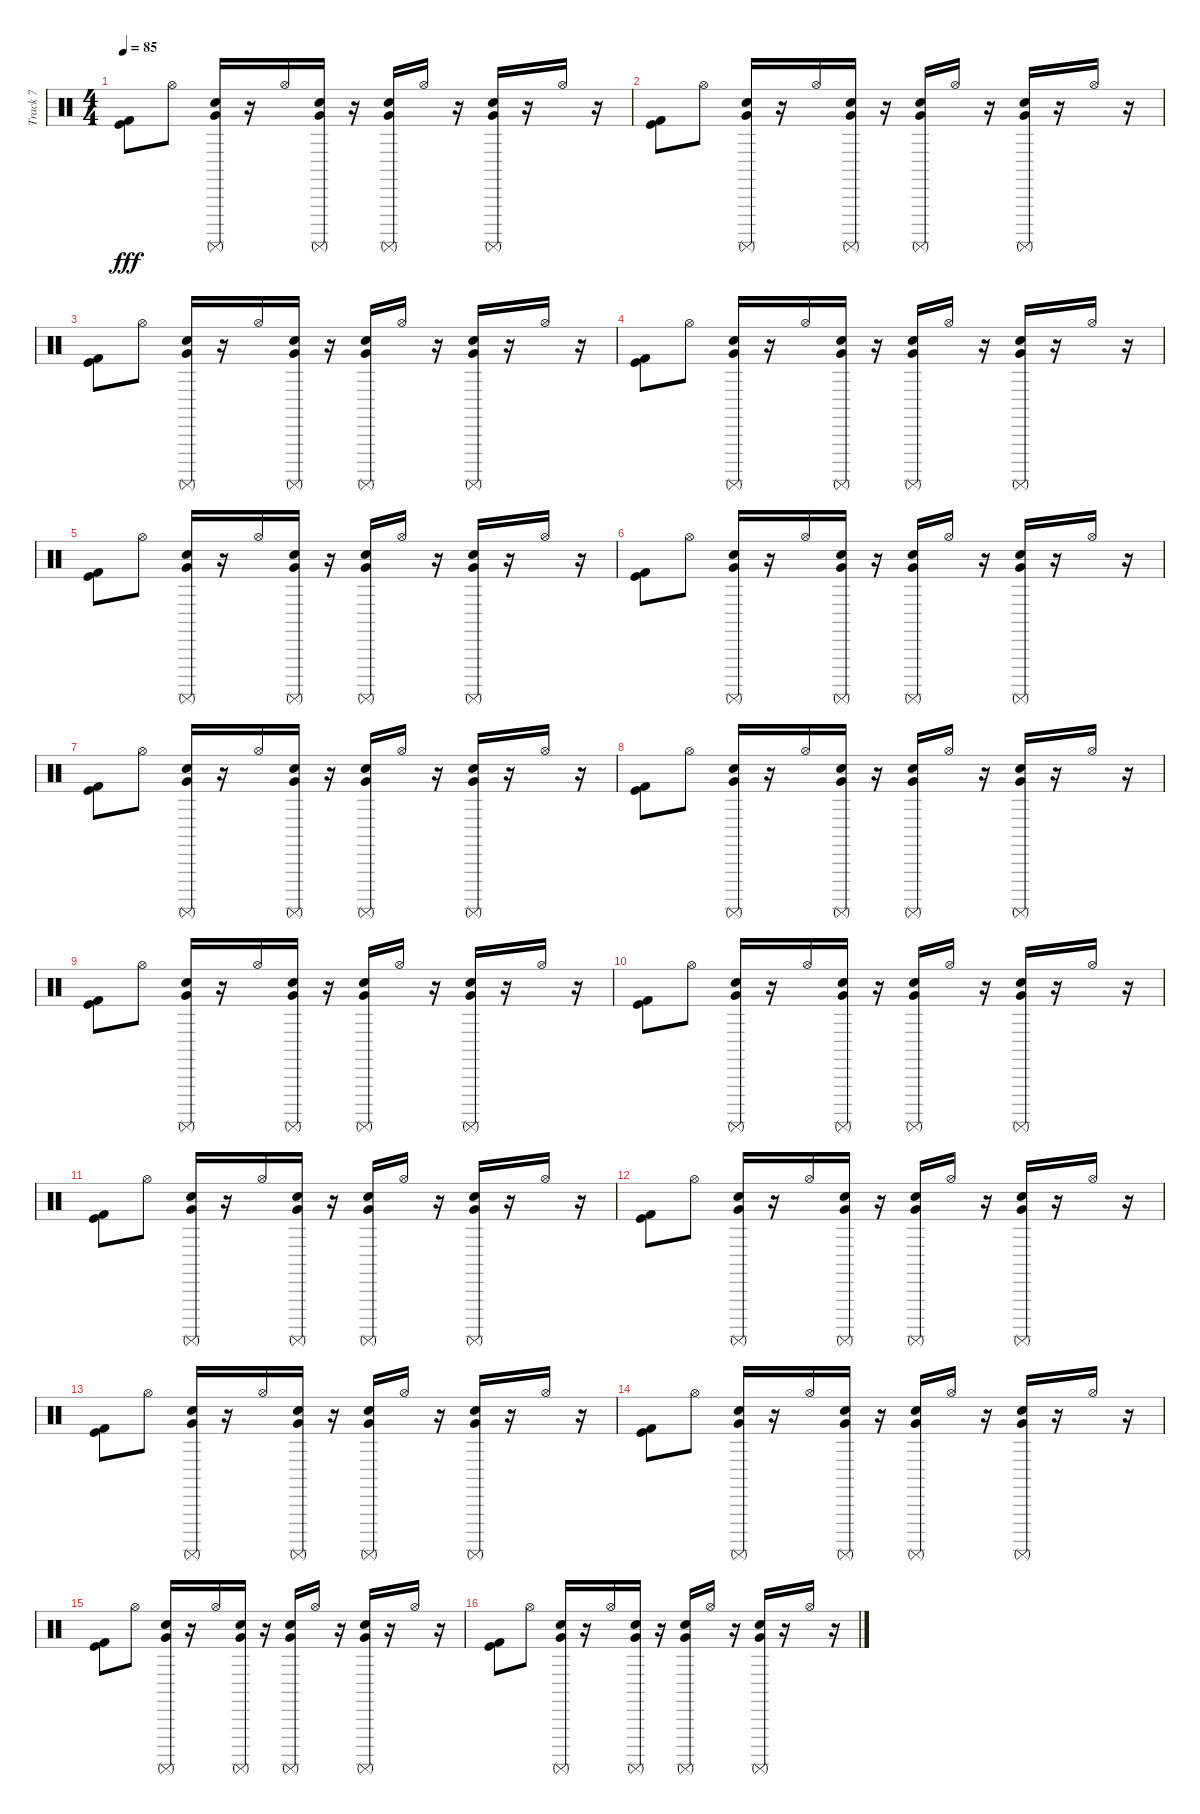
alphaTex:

\track ("Track 7" "Track 7") {instrument percussion}
\staff {score}
\articulation defaults
\ts (4 4)
\tempo 85
\clef neutral
\ks c
("Kick (hit)" "Kick (hit) 2").8{dy fff} "Hi-Hat (open)".8 ("Surdo (mute)" "Snare (hit) 2" "Very Low Tom (hit)").16 r.16 "Hi-Hat (open)".16 ("Surdo (mute)" "Snare (hit) 2" "Very Low Tom (hit)").16 r.16 ("Surdo (mute)" "Snare (hit) 2" "Very Low Tom (hit)").16 "Hi-Hat (open)".16 r.16 ("Surdo (mute)" "Snare (hit) 2" "Very Low Tom (hit)").16 r.16 "Hi-Hat (open)".16 r.16 |
("Kick (hit)" "Kick (hit) 2").8 "Hi-Hat (open)".8 ("Surdo (mute)" "Snare (hit) 2" "Very Low Tom (hit)").16 r.16 "Hi-Hat (open)".16 ("Surdo (mute)" "Snare (hit) 2" "Very Low Tom (hit)").16 r.16 ("Surdo (mute)" "Snare (hit) 2" "Very Low Tom (hit)").16 "Hi-Hat (open)".16 r.16 ("Surdo (mute)" "Snare (hit) 2" "Very Low Tom (hit)").16 r.16 "Hi-Hat (open)".16 r.16 |
("Kick (hit)" "Kick (hit) 2").8 "Hi-Hat (open)".8 ("Surdo (mute)" "Snare (hit) 2" "Very Low Tom (hit)").16 r.16 "Hi-Hat (open)".16 ("Surdo (mute)" "Snare (hit) 2" "Very Low Tom (hit)").16 r.16 ("Surdo (mute)" "Snare (hit) 2" "Very Low Tom (hit)").16 "Hi-Hat (open)".16 r.16 ("Surdo (mute)" "Snare (hit) 2" "Very Low Tom (hit)").16 r.16 "Hi-Hat (open)".16 r.16 |
("Kick (hit)" "Kick (hit) 2").8 "Hi-Hat (open)".8 ("Surdo (mute)" "Snare (hit) 2" "Very Low Tom (hit)").16 r.16 "Hi-Hat (open)".16 ("Surdo (mute)" "Snare (hit) 2" "Very Low Tom (hit)").16 r.16 ("Surdo (mute)" "Snare (hit) 2" "Very Low Tom (hit)").16 "Hi-Hat (open)".16 r.16 ("Surdo (mute)" "Snare (hit) 2" "Very Low Tom (hit)").16 r.16 "Hi-Hat (open)".16 r.16 |
("Kick (hit)" "Kick (hit) 2").8 "Hi-Hat (open)".8 ("Surdo (mute)" "Snare (hit) 2" "Very Low Tom (hit)").16 r.16 "Hi-Hat (open)".16 ("Surdo (mute)" "Snare (hit) 2" "Very Low Tom (hit)").16 r.16 ("Surdo (mute)" "Snare (hit) 2" "Very Low Tom (hit)").16 "Hi-Hat (open)".16 r.16 ("Surdo (mute)" "Snare (hit) 2" "Very Low Tom (hit)").16 r.16 "Hi-Hat (open)".16 r.16 |
("Kick (hit)" "Kick (hit) 2").8 "Hi-Hat (open)".8 ("Surdo (mute)" "Snare (hit) 2" "Very Low Tom (hit)").16 r.16 "Hi-Hat (open)".16 ("Surdo (mute)" "Snare (hit) 2" "Very Low Tom (hit)").16 r.16 ("Surdo (mute)" "Snare (hit) 2" "Very Low Tom (hit)").16 "Hi-Hat (open)".16 r.16 ("Surdo (mute)" "Snare (hit) 2" "Very Low Tom (hit)").16 r.16 "Hi-Hat (open)".16 r.16 |
("Kick (hit)" "Kick (hit) 2").8 "Hi-Hat (open)".8 ("Surdo (mute)" "Snare (hit) 2" "Very Low Tom (hit)").16 r.16 "Hi-Hat (open)".16 ("Surdo (mute)" "Snare (hit) 2" "Very Low Tom (hit)").16 r.16 ("Surdo (mute)" "Snare (hit) 2" "Very Low Tom (hit)").16 "Hi-Hat (open)".16 r.16 ("Surdo (mute)" "Snare (hit) 2" "Very Low Tom (hit)").16 r.16 "Hi-Hat (open)".16 r.16 |
("Kick (hit)" "Kick (hit) 2").8 "Hi-Hat (open)".8 ("Surdo (mute)" "Snare (hit) 2" "Very Low Tom (hit)").16 r.16 "Hi-Hat (open)".16 ("Surdo (mute)" "Snare (hit) 2" "Very Low Tom (hit)").16 r.16 ("Surdo (mute)" "Snare (hit) 2" "Very Low Tom (hit)").16 "Hi-Hat (open)".16 r.16 ("Surdo (mute)" "Snare (hit) 2" "Very Low Tom (hit)").16 r.16 "Hi-Hat (open)".16 r.16 |
("Kick (hit)" "Kick (hit) 2").8 "Hi-Hat (open)".8 ("Surdo (mute)" "Snare (hit) 2" "Very Low Tom (hit)").16 r.16 "Hi-Hat (open)".16 ("Surdo (mute)" "Snare (hit) 2" "Very Low Tom (hit)").16 r.16 ("Surdo (mute)" "Snare (hit) 2" "Very Low Tom (hit)").16 "Hi-Hat (open)".16 r.16 ("Surdo (mute)" "Snare (hit) 2" "Very Low Tom (hit)").16 r.16 "Hi-Hat (open)".16 r.16 |
("Kick (hit)" "Kick (hit) 2").8 "Hi-Hat (open)".8 ("Surdo (mute)" "Snare (hit) 2" "Very Low Tom (hit)").16 r.16 "Hi-Hat (open)".16 ("Surdo (mute)" "Snare (hit) 2" "Very Low Tom (hit)").16 r.16 ("Surdo (mute)" "Snare (hit) 2" "Very Low Tom (hit)").16 "Hi-Hat (open)".16 r.16 ("Surdo (mute)" "Snare (hit) 2" "Very Low Tom (hit)").16 r.16 "Hi-Hat (open)".16 r.16 |
("Kick (hit)" "Kick (hit) 2").8 "Hi-Hat (open)".8 ("Surdo (mute)" "Snare (hit) 2" "Very Low Tom (hit)").16 r.16 "Hi-Hat (open)".16 ("Surdo (mute)" "Snare (hit) 2" "Very Low Tom (hit)").16 r.16 ("Surdo (mute)" "Snare (hit) 2" "Very Low Tom (hit)").16 "Hi-Hat (open)".16 r.16 ("Surdo (mute)" "Snare (hit) 2" "Very Low Tom (hit)").16 r.16 "Hi-Hat (open)".16 r.16 |
("Kick (hit)" "Kick (hit) 2").8 "Hi-Hat (open)".8 ("Surdo (mute)" "Snare (hit) 2" "Very Low Tom (hit)").16 r.16 "Hi-Hat (open)".16 ("Surdo (mute)" "Snare (hit) 2" "Very Low Tom (hit)").16 r.16 ("Surdo (mute)" "Snare (hit) 2" "Very Low Tom (hit)").16 "Hi-Hat (open)".16 r.16 ("Surdo (mute)" "Snare (hit) 2" "Very Low Tom (hit)").16 r.16 "Hi-Hat (open)".16 r.16 |
("Kick (hit)" "Kick (hit) 2").8 "Hi-Hat (open)".8 ("Surdo (mute)" "Snare (hit) 2" "Very Low Tom (hit)").16 r.16 "Hi-Hat (open)".16 ("Surdo (mute)" "Snare (hit) 2" "Very Low Tom (hit)").16 r.16 ("Surdo (mute)" "Snare (hit) 2" "Very Low Tom (hit)").16 "Hi-Hat (open)".16 r.16 ("Surdo (mute)" "Snare (hit) 2" "Very Low Tom (hit)").16 r.16 "Hi-Hat (open)".16 r.16 |
("Kick (hit)" "Kick (hit) 2").8 "Hi-Hat (open)".8 ("Surdo (mute)" "Snare (hit) 2" "Very Low Tom (hit)").16 r.16 "Hi-Hat (open)".16 ("Surdo (mute)" "Snare (hit) 2" "Very Low Tom (hit)").16 r.16 ("Surdo (mute)" "Snare (hit) 2" "Very Low Tom (hit)").16 "Hi-Hat (open)".16 r.16 ("Surdo (mute)" "Snare (hit) 2" "Very Low Tom (hit)").16 r.16 "Hi-Hat (open)".16 r.16 |
("Kick (hit)" "Kick (hit) 2").8 "Hi-Hat (open)".8 ("Surdo (mute)" "Snare (hit) 2" "Very Low Tom (hit)").16 r.16 "Hi-Hat (open)".16 ("Surdo (mute)" "Snare (hit) 2" "Very Low Tom (hit)").16 r.16 ("Surdo (mute)" "Snare (hit) 2" "Very Low Tom (hit)").16 "Hi-Hat (open)".16 r.16 ("Surdo (mute)" "Snare (hit) 2" "Very Low Tom (hit)").16 r.16 "Hi-Hat (open)".16 r.16 |
("Kick (hit)" "Kick (hit) 2").8 "Hi-Hat (open)".8 ("Surdo (mute)" "Snare (hit) 2" "Very Low Tom (hit)").16 r.16 "Hi-Hat (open)".16 ("Surdo (mute)" "Snare (hit) 2" "Very Low Tom (hit)").16 r.16 ("Surdo (mute)" "Snare (hit) 2" "Very Low Tom (hit)").16 "Hi-Hat (open)".16 r.16 ("Surdo (mute)" "Snare (hit) 2" "Very Low Tom (hit)").16 r.16 "Hi-Hat (open)".16 r.16
